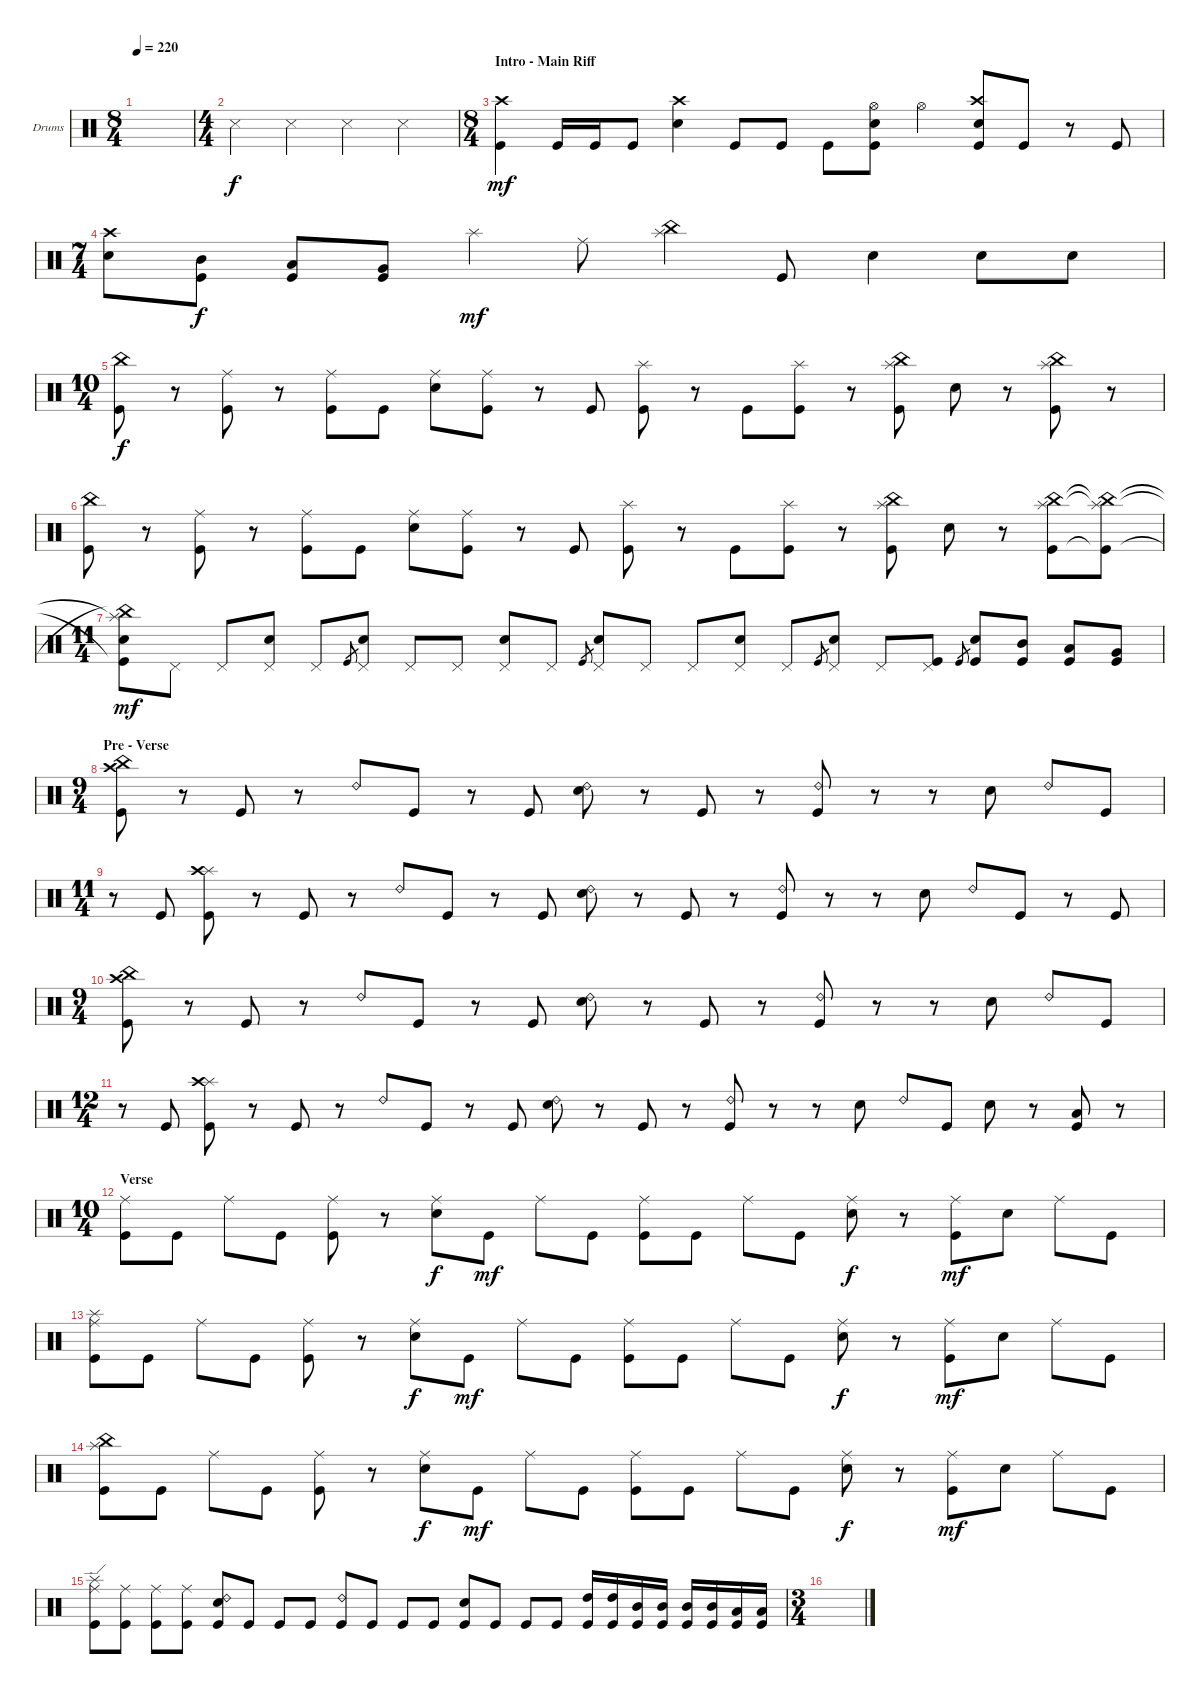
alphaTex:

\defaultSystemsLayout 4
\bracketExtendMode groupsimilarinstruments
\firstSystemTrackNameOrientation horizontal
\otherSystemsTrackNameOrientation horizontal
\track ("Samuel Santiago" "Drums") {instrument percussion}
\staff {score}
\articulation defaults
\ts (8 4)
\tempo 220
\clef neutral
\ks c
|
\ts (4 4)
"Snare (side stick) 3".4 "Snare (side stick) 3".4 "Snare (side stick) 3".4 "Snare (side stick) 3".4 |
\ts (8 4)
\section ("" "Intro - Main Riff")
("Kick (hit)" "Crash high (hit)").4{dy mf} "Kick (hit)".16 "Kick (hit)".16 "Kick (hit)".8 ("Snare (hit) 2" "Crash high (hit)").4 "Kick (hit)".8 "Kick (hit)".8 "Kick (hit)".8 ("Snare (hit) 2" "Hi-Hat (open)" "Kick (hit)").8 "Hi-Hat (open)".4 ("Kick (hit)" "Snare (hit) 2" "Crash high (hit)").8 "Kick (hit)".8 r.8 "Kick (hit)".8 |
\ts (7 4)
("Crash high (hit)" "Snare (hit) 2").8 ("Mid Tom (hit)" "Kick (hit)").8{dy f} ("Low Tom (hit)" "Kick (hit)").8 ("Very Low Tom (hit)" "Kick (hit)").8 "Splash (hit)".4{dy mf} "Ride (middle)".8 ("Splash (hit)" "China (hit)").4 "Kick (hit)".8 "Snare (hit) 2".4 "Snare (hit) 2".8 "Snare (hit) 2".8 |
\ts (10 4)
("Kick (hit)" "China (hit)").8{dy f} r.8 ("Kick (hit)" "Ride (middle)").8 r.8 ("Kick (hit)" "Ride (middle)").8 "Kick (hit)".8 ("Snare (hit) 2" "Ride (middle)").8 ("Kick (hit)" "Ride (middle)").8 r.8 "Kick (hit)".8 ("Kick (hit)" "Splash (hit)").8 r.8 "Kick (hit)".8 ("Kick (hit)" "Splash (hit)").8 r.8 ("Kick (hit)" "China (hit)" "Splash (hit)").8 "Snare (hit) 2".8 r.8 ("Kick (hit)" "Splash (hit)" "China (hit)").8 r.8 |
("Kick (hit)" "China (hit)").8 r.8 ("Kick (hit)" "Ride (middle)").8 r.8 ("Kick (hit)" "Ride (middle)").8 "Kick (hit)".8 ("Snare (hit) 2" "Ride (middle)").8 ("Kick (hit)" "Ride (middle)").8 r.8 "Kick (hit)".8 ("Kick (hit)" "Splash (hit)").8 r.8 "Kick (hit)".8 ("Kick (hit)" "Splash (hit)").8 r.8 ("Kick (hit)" "China (hit)" "Splash (hit)").8 "Snare (hit) 2".8 r.8 ("Kick (hit)" "Splash (hit)" "China (hit)").8 ("Kick (hit)"{t} "Splash (hit)"{t} "China (hit)"{t}).8 |
\ts (11 4)
("China (hit)"{t} "Kick (hit)"{t} "Splash (hit)"{t} "Snare (hit) 2").8{dy mf} "Pedal Hi-Hat (hit)".8 "Pedal Hi-Hat (hit)".8 ("Pedal Hi-Hat (hit)" "Snare (hit) 2").8 "Pedal Hi-Hat (hit)".8 "Kick (hit)".8{gr} ("Pedal Hi-Hat (hit)" "Snare (hit) 2").8 "Pedal Hi-Hat (hit)".8 "Pedal Hi-Hat (hit)".8 ("Pedal Hi-Hat (hit)" "Snare (hit) 2").8 "Pedal Hi-Hat (hit)".8 "Kick (hit)".8{gr} ("Pedal Hi-Hat (hit)" "Snare (hit) 2").8 "Pedal Hi-Hat (hit)".8 "Pedal Hi-Hat (hit)".8 ("Pedal Hi-Hat (hit)" "Snare (hit) 2").8 "Pedal Hi-Hat (hit)".8 "Kick (hit)".8{gr} ("Pedal Hi-Hat (hit)" "Snare (hit) 2").8 "Pedal Hi-Hat (hit)".8 ("Pedal Hi-Hat (hit)" "Kick (hit)").8 "Kick (hit)".8{gr} ("Snare (hit) 2" "Kick (hit)").8 ("Mid Tom (hit)" "Kick (hit)").8 ("Low Tom (hit)" "Kick (hit)").8 ("Kick (hit)" "Very Low Tom (hit)").8 |
\ts (9 4)
\section ("" "Pre - Verse")
("Kick (hit)" "Crash high (hit)" "China (hit)").8 r.8 "Kick (hit)".8 r.8 "Ride (bell) 2".8 "Kick (hit)".8 r.8 "Kick (hit)".8 ("Snare (hit) 2" "Ride (bell) 2").8 r.8 "Kick (hit)".8 r.8 ("Kick (hit)" "Ride (bell) 2").8 r.8 r.8 "Snare (hit) 2".8 "Ride (bell) 2".8 "Kick (hit)".8 |
\ts (11 4)
r.8 "Kick (hit)".8 ("Kick (hit)" "Splash (hit)" "Crash high (hit)").8 r.8 "Kick (hit)".8 r.8 "Ride (bell) 2".8 "Kick (hit)".8 r.8 "Kick (hit)".8 ("Snare (hit) 2" "Ride (bell) 2").8 r.8 "Kick (hit)".8 r.8 ("Kick (hit)" "Ride (bell) 2").8 r.8 r.8 "Snare (hit) 2".8 "Ride (bell) 2".8 "Kick (hit)".8 r.8 "Kick (hit)".8 |
\ts (9 4)
("Kick (hit)" "Crash high (hit)" "China (hit)").8 r.8 "Kick (hit)".8 r.8 "Ride (bell) 2".8 "Kick (hit)".8 r.8 "Kick (hit)".8 ("Snare (hit) 2" "Ride (bell) 2").8 r.8 "Kick (hit)".8 r.8 ("Kick (hit)" "Ride (bell) 2").8 r.8 r.8 "Snare (hit) 2".8 "Ride (bell) 2".8 "Kick (hit)".8 |
\ts (12 4)
r.8 "Kick (hit)".8 ("Kick (hit)" "Splash (hit)" "Crash high (hit)").8 r.8 "Kick (hit)".8 r.8 "Ride (bell) 2".8 "Kick (hit)".8 r.8 "Kick (hit)".8 ("Snare (hit) 2" "Ride (bell) 2").8 r.8 "Kick (hit)".8 r.8 ("Kick (hit)" "Ride (bell) 2").8 r.8 r.8 "Snare (hit) 2".8 "Ride (bell) 2".8 "Kick (hit)".8 "Snare (hit) 2".8 r.8 ("Kick (hit)" "Low Tom (hit)").8 r.8 |
\ts (10 4)
\section ("" "Verse")
("Kick (hit)" "Ride (middle)").8 "Kick (hit)".8 "Ride (middle)".8 "Kick (hit)".8 ("Kick (hit)" "Ride (middle)").8 r.8 ("Snare (hit) 2" "Ride (middle)").8{dy f} "Kick (hit)".8{dy mf} "Ride (middle)".8 "Kick (hit)".8 ("Kick (hit)" "Ride (middle)").8 "Kick (hit)".8 "Ride (middle)".8 "Kick (hit)".8 ("Snare (hit) 2" "Ride (middle)").8{dy f} r.8 ("Kick (hit)" "Ride (middle)").8{dy mf} "Snare (hit) 2".8 "Ride (middle)".8 "Kick (hit)".8 |
("Ride (middle)" "Splash (hit)" "Kick (hit)").8 "Kick (hit)".8 "Ride (middle)".8 "Kick (hit)".8 ("Kick (hit)" "Ride (middle)").8 r.8 ("Snare (hit) 2" "Ride (middle)").8{dy f} "Kick (hit)".8{dy mf} "Ride (middle)".8 "Kick (hit)".8 ("Kick (hit)" "Ride (middle)").8 "Kick (hit)".8 "Ride (middle)".8 "Kick (hit)".8 ("Snare (hit) 2" "Ride (middle)").8{dy f} r.8 ("Kick (hit)" "Ride (middle)").8{dy mf} "Snare (hit) 2".8 "Ride (middle)".8 "Kick (hit)".8 |
("Kick (hit)" "China (hit)" "Splash (hit)").8 "Kick (hit)".8 "Ride (middle)".8 "Kick (hit)".8 ("Kick (hit)" "Ride (middle)").8 r.8 ("Snare (hit) 2" "Ride (middle)").8{dy f} "Kick (hit)".8{dy mf} "Ride (middle)".8 "Kick (hit)".8 ("Kick (hit)" "Ride (middle)").8 "Kick (hit)".8 "Ride (middle)".8 "Kick (hit)".8 ("Snare (hit) 2" "Ride (middle)").8{dy f} r.8 ("Kick (hit)" "Ride (middle)").8{dy mf} "Snare (hit) 2".8 "Ride (middle)".8 "Kick (hit)".8 |
("Kick (hit)" "Splash (hit)" "Ride (edge)").8 ("Kick (hit)" "Ride (middle)").8 ("Kick (hit)" "Ride (middle)").8 ("Kick (hit)" "Ride (middle)").8 ("Kick (hit)" "Snare (hit) 2" "Ride (bell) 2").8 "Kick (hit)".8 "Kick (hit)".8 "Kick (hit)".8 ("Kick (hit)" "Ride (bell) 2").8 "Kick (hit)".8 "Kick (hit)".8 "Kick (hit)".8 ("Kick (hit)" "Snare (hit) 2").8 "Kick (hit)".8 "Kick (hit)".8 "Kick (hit)".8 ("Kick (hit)" "High Tom (hit)").16 ("Kick (hit)" "High Tom (hit)").16 ("Kick (hit)" "Mid Tom (hit)").16 ("Kick (hit)" "Mid Tom (hit)").16 ("Kick (hit)" "Mid Tom (hit)").16 ("Kick (hit)" "Mid Tom (hit)").16 ("Kick (hit)" "Low Tom (hit)").16 ("Kick (hit)" "Low Tom (hit)").16 |
\ts (3 4)
